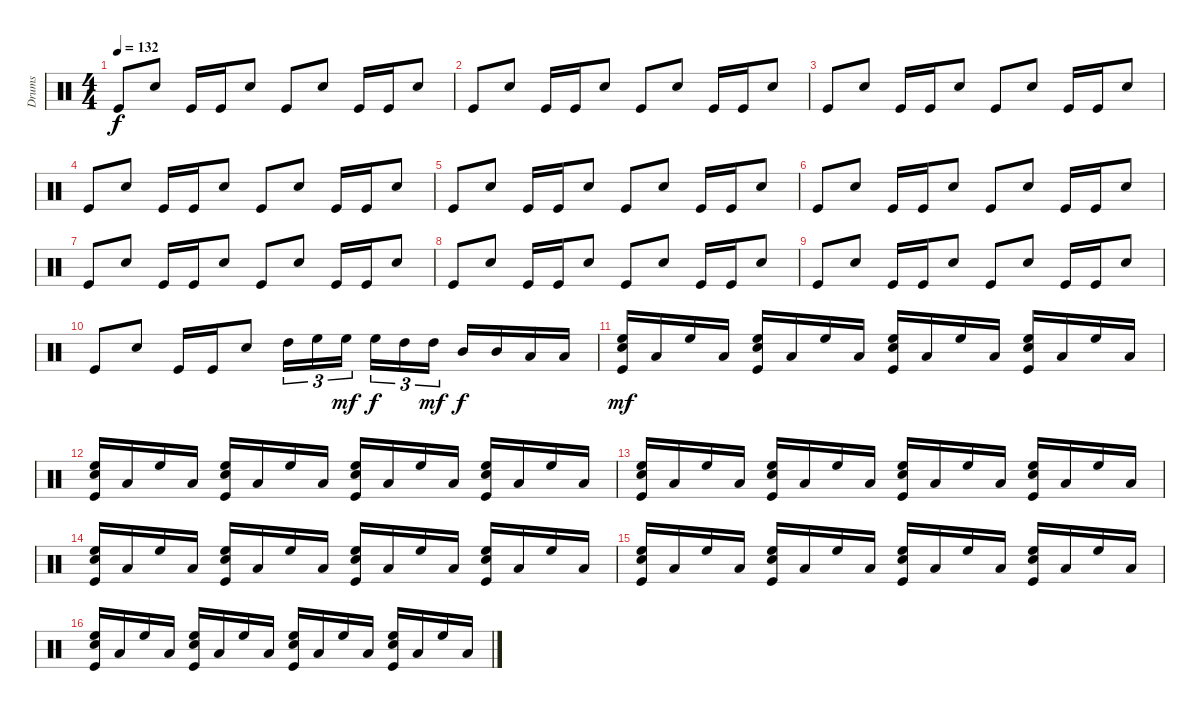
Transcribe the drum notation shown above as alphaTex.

\track ("Drums" "Drums") {instrument percussion}
\staff {score}
\articulation defaults
\ts (4 4)
\tempo 132
\clef neutral
\ks c "Kick (hit)".8{dy f} "Electric Snare (hit)".8 "Kick (hit)".16 "Kick (hit)".16 "Electric Snare (hit)".8 "Kick (hit)".8 "Electric Snare (hit)".8 "Kick (hit)".16 "Kick (hit)".16 "Electric Snare (hit)".8
|
"Kick (hit)".8 "Electric Snare (hit)".8 "Kick (hit)".16 "Kick (hit)".16 "Electric Snare (hit)".8 "Kick (hit)".8 "Electric Snare (hit)".8 "Kick (hit)".16 "Kick (hit)".16 "Electric Snare (hit)".8 |
"Kick (hit)".8 "Electric Snare (hit)".8 "Kick (hit)".16 "Kick (hit)".16 "Electric Snare (hit)".8 "Kick (hit)".8 "Electric Snare (hit)".8 "Kick (hit)".16 "Kick (hit)".16 "Electric Snare (hit)".8 |
"Kick (hit)".8 "Electric Snare (hit)".8 "Kick (hit)".16 "Kick (hit)".16 "Electric Snare (hit)".8 "Kick (hit)".8 "Electric Snare (hit)".8 "Kick (hit)".16 "Kick (hit)".16 "Electric Snare (hit)".8 |
"Kick (hit)".8 "Electric Snare (hit)".8 "Kick (hit)".16 "Kick (hit)".16 "Electric Snare (hit)".8 "Kick (hit)".8 "Electric Snare (hit)".8 "Kick (hit)".16 "Kick (hit)".16 "Electric Snare (hit)".8 |
"Kick (hit)".8 "Electric Snare (hit)".8 "Kick (hit)".16 "Kick (hit)".16 "Electric Snare (hit)".8 "Kick (hit)".8 "Electric Snare (hit)".8 "Kick (hit)".16 "Kick (hit)".16 "Electric Snare (hit)".8 |
"Kick (hit)".8 "Electric Snare (hit)".8 "Kick (hit)".16 "Kick (hit)".16 "Electric Snare (hit)".8 "Kick (hit)".8 "Electric Snare (hit)".8 "Kick (hit)".16 "Kick (hit)".16 "Electric Snare (hit)".8 |
"Kick (hit)".8 "Electric Snare (hit)".8 "Kick (hit)".16 "Kick (hit)".16 "Electric Snare (hit)".8 "Kick (hit)".8 "Electric Snare (hit)".8 "Kick (hit)".16 "Kick (hit)".16 "Electric Snare (hit)".8 |
"Kick (hit)".8 "Electric Snare (hit)".8 "Kick (hit)".16 "Kick (hit)".16 "Electric Snare (hit)".8 "Kick (hit)".8 "Electric Snare (hit)".8 "Kick (hit)".16 "Kick (hit)".16 "Electric Snare (hit)".8 |
"Kick (hit)".8 "Electric Snare (hit)".8 "Kick (hit)".16 "Kick (hit)".16 "Electric Snare (hit)".8 "High Tom (hit)".16{tu (3 2)} "High Floor Tom (hit)".16{tu (3 2)} "High Floor Tom (hit)".16{tu (3 2) dy mf} "High Floor Tom (hit)".16{tu (3 2) dy f} "High Tom (hit)".16{tu (3 2)} "High Tom (hit)".16{tu (3 2) dy mf} "Mid Tom (hit)".16{dy f} "Mid Tom (hit)".16 "Low Tom (hit)".16 "Low Tom (hit)".16 |
("Kick (hit)" "High Floor Tom (hit)" "Electric Snare (hit)").16{dy mf} "Low Tom (hit)".16 "High Floor Tom (hit)".16 "Low Tom (hit)".16 ("Kick (hit)" "High Floor Tom (hit)" "Electric Snare (hit)").16 "Low Tom (hit)".16 "High Floor Tom (hit)".16 "Low Tom (hit)".16 ("Kick (hit)" "High Floor Tom (hit)" "Electric Snare (hit)").16 "Low Tom (hit)".16 "High Floor Tom (hit)".16 "Low Tom (hit)".16 ("Kick (hit)" "High Floor Tom (hit)" "Electric Snare (hit)").16 "Low Tom (hit)".16 "High Floor Tom (hit)".16 "Low Tom (hit)".16 |
("Kick (hit)" "High Floor Tom (hit)" "Electric Snare (hit)").16 "Low Tom (hit)".16 "High Floor Tom (hit)".16 "Low Tom (hit)".16 ("Kick (hit)" "High Floor Tom (hit)" "Electric Snare (hit)").16 "Low Tom (hit)".16 "High Floor Tom (hit)".16 "Low Tom (hit)".16 ("Kick (hit)" "High Floor Tom (hit)" "Electric Snare (hit)").16 "Low Tom (hit)".16 "High Floor Tom (hit)".16 "Low Tom (hit)".16 ("Kick (hit)" "High Floor Tom (hit)" "Electric Snare (hit)").16 "Low Tom (hit)".16 "High Floor Tom (hit)".16 "Low Tom (hit)".16 |
("Kick (hit)" "High Floor Tom (hit)" "Electric Snare (hit)").16 "Low Tom (hit)".16 "High Floor Tom (hit)".16 "Low Tom (hit)".16 ("Kick (hit)" "High Floor Tom (hit)" "Electric Snare (hit)").16 "Low Tom (hit)".16 "High Floor Tom (hit)".16 "Low Tom (hit)".16 ("Kick (hit)" "High Floor Tom (hit)" "Electric Snare (hit)").16 "Low Tom (hit)".16 "High Floor Tom (hit)".16 "Low Tom (hit)".16 ("Kick (hit)" "High Floor Tom (hit)" "Electric Snare (hit)").16 "Low Tom (hit)".16 "High Floor Tom (hit)".16 "Low Tom (hit)".16 |
("Kick (hit)" "High Floor Tom (hit)" "Electric Snare (hit)").16 "Low Tom (hit)".16 "High Floor Tom (hit)".16 "Low Tom (hit)".16 ("Kick (hit)" "High Floor Tom (hit)" "Electric Snare (hit)").16 "Low Tom (hit)".16 "High Floor Tom (hit)".16 "Low Tom (hit)".16 ("Kick (hit)" "High Floor Tom (hit)" "Electric Snare (hit)").16 "Low Tom (hit)".16 "High Floor Tom (hit)".16 "Low Tom (hit)".16 ("Kick (hit)" "High Floor Tom (hit)" "Electric Snare (hit)").16 "Low Tom (hit)".16 "High Floor Tom (hit)".16 "Low Tom (hit)".16 |
("Kick (hit)" "High Floor Tom (hit)" "Electric Snare (hit)").16 "Low Tom (hit)".16 "High Floor Tom (hit)".16 "Low Tom (hit)".16 ("Kick (hit)" "High Floor Tom (hit)" "Electric Snare (hit)").16 "Low Tom (hit)".16 "High Floor Tom (hit)".16 "Low Tom (hit)".16 ("Kick (hit)" "High Floor Tom (hit)" "Electric Snare (hit)").16 "Low Tom (hit)".16 "High Floor Tom (hit)".16 "Low Tom (hit)".16 ("Kick (hit)" "High Floor Tom (hit)" "Electric Snare (hit)").16 "Low Tom (hit)".16 "High Floor Tom (hit)".16 "Low Tom (hit)".16 |
("Kick (hit)" "High Floor Tom (hit)" "Electric Snare (hit)").16 "Low Tom (hit)".16 "High Floor Tom (hit)".16 "Low Tom (hit)".16 ("Kick (hit)" "High Floor Tom (hit)" "Electric Snare (hit)").16 "Low Tom (hit)".16 "High Floor Tom (hit)".16 "Low Tom (hit)".16 ("Kick (hit)" "High Floor Tom (hit)" "Electric Snare (hit)").16 "Low Tom (hit)".16 "High Floor Tom (hit)".16 "Low Tom (hit)".16 ("Kick (hit)" "High Floor Tom (hit)" "Electric Snare (hit)").16 "Low Tom (hit)".16 "High Floor Tom (hit)".16 "Low Tom (hit)".16
